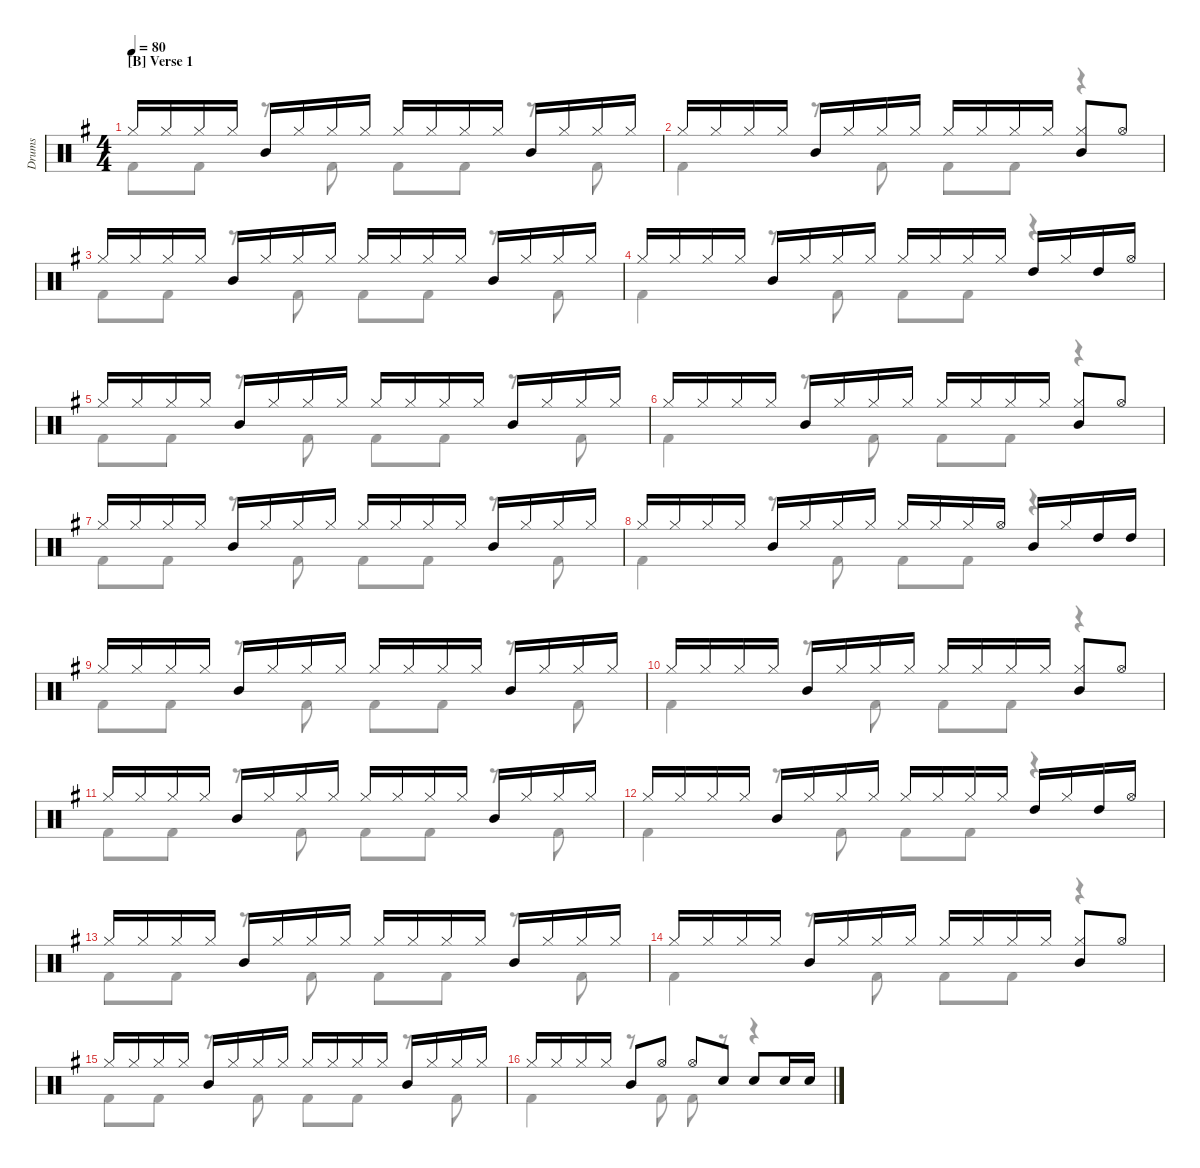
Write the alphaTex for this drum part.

\hideDynamics
\bracketExtendMode nobrackets
\otherSystemsTrackNameOrientation horizontal
\track ("Drums" "Drums") {defaultSystemsLayout 4 multiBarRest instrument percussion}
\staff {score}
\articulation defaults
\voice
\ts (4 4)
\section ("B" "Verse 1")
\tempo 80
\clef neutral
\ks g "Hi-Hat (closed)"{acc forcenatural}.16{dy f beam Up} "Hi-Hat (closed)"{acc forcenatural}.16{beam Up} "Hi-Hat (closed)"{acc forcenatural}.16{beam Up} "Hi-Hat (closed)"{acc forcenatural}.16{beam Up} "Mid Tom (hit)"{acc forcenatural}.16{beam Up} "Hi-Hat (closed)"{acc forcenatural}.16{beam Up} "Hi-Hat (closed)"{acc forcenatural}.16{beam Up} "Hi-Hat (closed)"{acc forcenatural}.16{beam Up} "Hi-Hat (closed)"{acc forcenatural}.16{beam Up} "Hi-Hat (closed)"{acc forcenatural}.16{beam Up} "Hi-Hat (closed)"{acc forcenatural}.16{beam Up} "Hi-Hat (closed)"{acc forcenatural}.16{beam Up} "Mid Tom (hit)"{acc forcenatural}.16{beam Up} "Hi-Hat (closed)"{acc forcenatural}.16{beam Up} "Hi-Hat (closed)"{acc forcenatural}.16{beam Up} "Hi-Hat (closed)"{acc forcenatural}.16{beam Up}
|
"Hi-Hat (closed)"{acc forcenatural}.16{beam Up} "Hi-Hat (closed)"{acc forcenatural}.16{beam Up} "Hi-Hat (closed)"{acc forcenatural}.16{beam Up} "Hi-Hat (closed)"{acc forcenatural}.16{beam Up} "Mid Tom (hit)"{acc forcenatural}.16{beam Up} "Hi-Hat (closed)"{acc forcenatural}.16{beam Up} "Hi-Hat (closed)"{acc forcenatural}.16{beam Up} "Hi-Hat (closed)"{acc forcenatural}.16{beam Up} "Hi-Hat (closed)"{acc forcenatural}.16{beam Up} "Hi-Hat (closed)"{acc forcenatural}.16{beam Up} "Hi-Hat (closed)"{acc forcenatural}.16{beam Up} "Hi-Hat (closed)"{acc forcenatural}.16{beam Up} ("Hi-Hat (closed)"{acc forcenatural} "Mid Tom (hit)"{acc forcenatural}).8{beam Up} "Hi-Hat (open)"{acc forcenatural}.8{beam Up} |
"Hi-Hat (closed)"{acc forcenatural}.16{beam Up} "Hi-Hat (closed)"{acc forcenatural}.16{beam Up} "Hi-Hat (closed)"{acc forcenatural}.16{beam Up} "Hi-Hat (closed)"{acc forcenatural}.16{beam Up} "Mid Tom (hit)"{acc forcenatural}.16{beam Up} "Hi-Hat (closed)"{acc forcenatural}.16{beam Up} "Hi-Hat (closed)"{acc forcenatural}.16{beam Up} "Hi-Hat (closed)"{acc forcenatural}.16{beam Up} "Hi-Hat (closed)"{acc forcenatural}.16{beam Up} "Hi-Hat (closed)"{acc forcenatural}.16{beam Up} "Hi-Hat (closed)"{acc forcenatural}.16{beam Up} "Hi-Hat (closed)"{acc forcenatural}.16{beam Up} "Mid Tom (hit)"{acc forcenatural}.16{beam Up} "Hi-Hat (closed)"{acc forcenatural}.16{beam Up} "Hi-Hat (closed)"{acc forcenatural}.16{beam Up} "Hi-Hat (closed)"{acc forcenatural}.16{beam Up} |
"Hi-Hat (closed)"{acc forcenatural}.16{beam Up} "Hi-Hat (closed)"{acc forcenatural}.16{beam Up} "Hi-Hat (closed)"{acc forcenatural}.16{beam Up} "Hi-Hat (closed)"{acc forcenatural}.16{beam Up} "Mid Tom (hit)"{acc forcenatural}.16{beam Up} "Hi-Hat (closed)"{acc forcenatural}.16{beam Up} "Hi-Hat (closed)"{acc forcenatural}.16{beam Up} "Hi-Hat (closed)"{acc forcenatural}.16{beam Up} "Hi-Hat (closed)"{acc forcenatural}.16{beam Up} "Hi-Hat (closed)"{acc forcenatural}.16{beam Up} "Hi-Hat (closed)"{acc forcenatural}.16{beam Up} "Hi-Hat (closed)"{acc forcenatural}.16{beam Up} "High Tom (hit)"{acc forcenatural}.16{beam Up} "Hi-Hat (closed)"{acc forcenatural}.16{beam Up} "High Tom (hit)"{acc forcenatural}.16{beam Up} "Hi-Hat (open)"{acc forcenatural}.16{beam Up} |
"Hi-Hat (closed)"{acc forcenatural}.16{beam Up} "Hi-Hat (closed)"{acc forcenatural}.16{beam Up} "Hi-Hat (closed)"{acc forcenatural}.16{beam Up} "Hi-Hat (closed)"{acc forcenatural}.16{beam Up} "Mid Tom (hit)"{acc forcenatural}.16{beam Up} "Hi-Hat (closed)"{acc forcenatural}.16{beam Up} "Hi-Hat (closed)"{acc forcenatural}.16{beam Up} "Hi-Hat (closed)"{acc forcenatural}.16{beam Up} "Hi-Hat (closed)"{acc forcenatural}.16{beam Up} "Hi-Hat (closed)"{acc forcenatural}.16{beam Up} "Hi-Hat (closed)"{acc forcenatural}.16{beam Up} "Hi-Hat (closed)"{acc forcenatural}.16{beam Up} "Mid Tom (hit)"{acc forcenatural}.16{beam Up} "Hi-Hat (closed)"{acc forcenatural}.16{beam Up} "Hi-Hat (closed)"{acc forcenatural}.16{beam Up} "Hi-Hat (closed)"{acc forcenatural}.16{beam Up} |
"Hi-Hat (closed)"{acc forcenatural}.16{beam Up} "Hi-Hat (closed)"{acc forcenatural}.16{beam Up} "Hi-Hat (closed)"{acc forcenatural}.16{beam Up} "Hi-Hat (closed)"{acc forcenatural}.16{beam Up} "Mid Tom (hit)"{acc forcenatural}.16{beam Up} "Hi-Hat (closed)"{acc forcenatural}.16{beam Up} "Hi-Hat (closed)"{acc forcenatural}.16{beam Up} "Hi-Hat (closed)"{acc forcenatural}.16{beam Up} "Hi-Hat (closed)"{acc forcenatural}.16{beam Up} "Hi-Hat (closed)"{acc forcenatural}.16{beam Up} "Hi-Hat (closed)"{acc forcenatural}.16{beam Up} "Hi-Hat (closed)"{acc forcenatural}.16{beam Up} ("Hi-Hat (closed)"{acc forcenatural} "Mid Tom (hit)"{acc forcenatural}).8{beam Up} "Hi-Hat (open)"{acc forcenatural}.8{beam Up} |
"Hi-Hat (closed)"{acc forcenatural}.16{beam Up} "Hi-Hat (closed)"{acc forcenatural}.16{beam Up} "Hi-Hat (closed)"{acc forcenatural}.16{beam Up} "Hi-Hat (closed)"{acc forcenatural}.16{beam Up} "Mid Tom (hit)"{acc forcenatural}.16{beam Up} "Hi-Hat (closed)"{acc forcenatural}.16{beam Up} "Hi-Hat (closed)"{acc forcenatural}.16{beam Up} "Hi-Hat (closed)"{acc forcenatural}.16{beam Up} "Hi-Hat (closed)"{acc forcenatural}.16{beam Up} "Hi-Hat (closed)"{acc forcenatural}.16{beam Up} "Hi-Hat (closed)"{acc forcenatural}.16{beam Up} "Hi-Hat (closed)"{acc forcenatural}.16{beam Up} "Mid Tom (hit)"{acc forcenatural}.16{beam Up} "Hi-Hat (closed)"{acc forcenatural}.16{beam Up} "Hi-Hat (closed)"{acc forcenatural}.16{beam Up} "Hi-Hat (closed)"{acc forcenatural}.16{beam Up} |
"Hi-Hat (closed)"{acc forcenatural}.16{beam Up} "Hi-Hat (closed)"{acc forcenatural}.16{beam Up} "Hi-Hat (closed)"{acc forcenatural}.16{beam Up} "Hi-Hat (closed)"{acc forcenatural}.16{beam Up} "Mid Tom (hit)"{acc forcenatural}.16{beam Up} "Hi-Hat (closed)"{acc forcenatural}.16{beam Up} "Hi-Hat (closed)"{acc forcenatural}.16{beam Up} "Hi-Hat (closed)"{acc forcenatural}.16{beam Up} "Hi-Hat (closed)"{acc forcenatural}.16{beam Up} "Hi-Hat (closed)"{acc forcenatural}.16{beam Up} "Hi-Hat (closed)"{acc forcenatural}.16{beam Up} "Hi-Hat (open)"{acc forcenatural}.16{beam Up} "Mid Tom (hit)"{acc forcenatural}.16{beam Up} "Hi-Hat (closed)"{acc forcenatural}.16{beam Up} "High Tom (hit)"{acc forcenatural}.16{beam Up} "High Tom (hit)"{acc forcenatural}.16{beam Up} |
"Hi-Hat (closed)"{acc forcenatural}.16{beam Up} "Hi-Hat (closed)"{acc forcenatural}.16{beam Up} "Hi-Hat (closed)"{acc forcenatural}.16{beam Up} "Hi-Hat (closed)"{acc forcenatural}.16{beam Up} "Mid Tom (hit)"{acc forcenatural}.16{beam Up} "Hi-Hat (closed)"{acc forcenatural}.16{beam Up} "Hi-Hat (closed)"{acc forcenatural}.16{beam Up} "Hi-Hat (closed)"{acc forcenatural}.16{beam Up} "Hi-Hat (closed)"{acc forcenatural}.16{beam Up} "Hi-Hat (closed)"{acc forcenatural}.16{beam Up} "Hi-Hat (closed)"{acc forcenatural}.16{beam Up} "Hi-Hat (closed)"{acc forcenatural}.16{beam Up} "Mid Tom (hit)"{acc forcenatural}.16{beam Up} "Hi-Hat (closed)"{acc forcenatural}.16{beam Up} "Hi-Hat (closed)"{acc forcenatural}.16{beam Up} "Hi-Hat (closed)"{acc forcenatural}.16{beam Up} |
"Hi-Hat (closed)"{acc forcenatural}.16{beam Up} "Hi-Hat (closed)"{acc forcenatural}.16{beam Up} "Hi-Hat (closed)"{acc forcenatural}.16{beam Up} "Hi-Hat (closed)"{acc forcenatural}.16{beam Up} "Mid Tom (hit)"{acc forcenatural}.16{beam Up} "Hi-Hat (closed)"{acc forcenatural}.16{beam Up} "Hi-Hat (closed)"{acc forcenatural}.16{beam Up} "Hi-Hat (closed)"{acc forcenatural}.16{beam Up} "Hi-Hat (closed)"{acc forcenatural}.16{beam Up} "Hi-Hat (closed)"{acc forcenatural}.16{beam Up} "Hi-Hat (closed)"{acc forcenatural}.16{beam Up} "Hi-Hat (closed)"{acc forcenatural}.16{beam Up} ("Hi-Hat (closed)"{acc forcenatural} "Mid Tom (hit)"{acc forcenatural}).8{beam Up} "Hi-Hat (open)"{acc forcenatural}.8{beam Up} |
"Hi-Hat (closed)"{acc forcenatural}.16{beam Up} "Hi-Hat (closed)"{acc forcenatural}.16{beam Up} "Hi-Hat (closed)"{acc forcenatural}.16{beam Up} "Hi-Hat (closed)"{acc forcenatural}.16{beam Up} "Mid Tom (hit)"{acc forcenatural}.16{beam Up} "Hi-Hat (closed)"{acc forcenatural}.16{beam Up} "Hi-Hat (closed)"{acc forcenatural}.16{beam Up} "Hi-Hat (closed)"{acc forcenatural}.16{beam Up} "Hi-Hat (closed)"{acc forcenatural}.16{beam Up} "Hi-Hat (closed)"{acc forcenatural}.16{beam Up} "Hi-Hat (closed)"{acc forcenatural}.16{beam Up} "Hi-Hat (closed)"{acc forcenatural}.16{beam Up} "Mid Tom (hit)"{acc forcenatural}.16{beam Up} "Hi-Hat (closed)"{acc forcenatural}.16{beam Up} "Hi-Hat (closed)"{acc forcenatural}.16{beam Up} "Hi-Hat (closed)"{acc forcenatural}.16{beam Up} |
"Hi-Hat (closed)"{acc forcenatural}.16{beam Up} "Hi-Hat (closed)"{acc forcenatural}.16{beam Up} "Hi-Hat (closed)"{acc forcenatural}.16{beam Up} "Hi-Hat (closed)"{acc forcenatural}.16{beam Up} "Mid Tom (hit)"{acc forcenatural}.16{beam Up} "Hi-Hat (closed)"{acc forcenatural}.16{beam Up} "Hi-Hat (closed)"{acc forcenatural}.16{beam Up} "Hi-Hat (closed)"{acc forcenatural}.16{beam Up} "Hi-Hat (closed)"{acc forcenatural}.16{beam Up} "Hi-Hat (closed)"{acc forcenatural}.16{beam Up} "Hi-Hat (closed)"{acc forcenatural}.16{beam Up} "Hi-Hat (closed)"{acc forcenatural}.16{beam Up} "High Tom (hit)"{acc forcenatural}.16{beam Up} "Hi-Hat (closed)"{acc forcenatural}.16{beam Up} "High Tom (hit)"{acc forcenatural}.16{beam Up} "Hi-Hat (open)"{acc forcenatural}.16{beam Up} |
"Hi-Hat (closed)"{acc forcenatural}.16{beam Up} "Hi-Hat (closed)"{acc forcenatural}.16{beam Up} "Hi-Hat (closed)"{acc forcenatural}.16{beam Up} "Hi-Hat (closed)"{acc forcenatural}.16{beam Up} "Mid Tom (hit)"{acc forcenatural}.16{beam Up} "Hi-Hat (closed)"{acc forcenatural}.16{beam Up} "Hi-Hat (closed)"{acc forcenatural}.16{beam Up} "Hi-Hat (closed)"{acc forcenatural}.16{beam Up} "Hi-Hat (closed)"{acc forcenatural}.16{beam Up} "Hi-Hat (closed)"{acc forcenatural}.16{beam Up} "Hi-Hat (closed)"{acc forcenatural}.16{beam Up} "Hi-Hat (closed)"{acc forcenatural}.16{beam Up} "Mid Tom (hit)"{acc forcenatural}.16{beam Up} "Hi-Hat (closed)"{acc forcenatural}.16{beam Up} "Hi-Hat (closed)"{acc forcenatural}.16{beam Up} "Hi-Hat (closed)"{acc forcenatural}.16{beam Up} |
"Hi-Hat (closed)"{acc forcenatural}.16{beam Up} "Hi-Hat (closed)"{acc forcenatural}.16{beam Up} "Hi-Hat (closed)"{acc forcenatural}.16{beam Up} "Hi-Hat (closed)"{acc forcenatural}.16{beam Up} "Mid Tom (hit)"{acc forcenatural}.16{beam Up} "Hi-Hat (closed)"{acc forcenatural}.16{beam Up} "Hi-Hat (closed)"{acc forcenatural}.16{beam Up} "Hi-Hat (closed)"{acc forcenatural}.16{beam Up} "Hi-Hat (closed)"{acc forcenatural}.16{beam Up} "Hi-Hat (closed)"{acc forcenatural}.16{beam Up} "Hi-Hat (closed)"{acc forcenatural}.16{beam Up} "Hi-Hat (closed)"{acc forcenatural}.16{beam Up} ("Hi-Hat (closed)"{acc forcenatural} "Mid Tom (hit)"{acc forcenatural}).8{beam Up} "Hi-Hat (open)"{acc forcenatural}.8{beam Up} |
"Hi-Hat (closed)"{acc forcenatural}.16{beam Up} "Hi-Hat (closed)"{acc forcenatural}.16{beam Up} "Hi-Hat (closed)"{acc forcenatural}.16{beam Up} "Hi-Hat (closed)"{acc forcenatural}.16{beam Up} "Mid Tom (hit)"{acc forcenatural}.16{beam Up} "Hi-Hat (closed)"{acc forcenatural}.16{beam Up} "Hi-Hat (closed)"{acc forcenatural}.16{beam Up} "Hi-Hat (closed)"{acc forcenatural}.16{beam Up} "Hi-Hat (closed)"{acc forcenatural}.16{beam Up} "Hi-Hat (closed)"{acc forcenatural}.16{beam Up} "Hi-Hat (closed)"{acc forcenatural}.16{beam Up} "Hi-Hat (closed)"{acc forcenatural}.16{beam Up} "Mid Tom (hit)"{acc forcenatural}.16{beam Up} "Hi-Hat (closed)"{acc forcenatural}.16{beam Up} "Hi-Hat (closed)"{acc forcenatural}.16{beam Up} "Hi-Hat (closed)"{acc forcenatural}.16{beam Up} |
"Hi-Hat (closed)"{acc forcenatural}.16{beam Up} "Hi-Hat (closed)"{acc forcenatural}.16{beam Up} "Hi-Hat (closed)"{acc forcenatural}.16{beam Up} "Hi-Hat (closed)"{acc forcenatural}.16{beam Up} "Mid Tom (hit)"{acc forcenatural}.8{beam Up} "Hi-Hat (open)"{acc forcenatural}.8{beam Up} "Hi-Hat (open)"{acc forcenatural}.8{beam Up} "Snare (hit) 2"{acc forcenatural}.8{beam Up} "Snare (hit) 2"{acc forcenatural}.8{beam Up} "Snare (hit) 2"{acc forcenatural}.16{beam Up} "Snare (hit) 2"{acc forcenatural}.16{beam Up}
\voice
\clef neutral
\ottava regular
\simile none
\ks g "Kick (hit) 2"{acc forcenatural}.8{dy mf beam Down} "Kick (hit) 2"{acc forcenatural}.8{beam Down}
r.8{beam Down} "Kick (hit) 2"{acc forcenatural}.8{beam Down} "Kick (hit) 2"{acc forcenatural}.8{beam Down} "Kick (hit) 2"{acc forcenatural}.8{beam Down} r.8{beam Down} "Kick (hit) 2"{acc forcenatural}.8{beam Down} |
"Kick (hit) 2"{acc forcenatural}.4{beam Down} r.8{beam Down} "Kick (hit) 2"{acc forcenatural}.8{beam Down} "Kick (hit) 2"{acc forcenatural}.8{beam Down} "Kick (hit) 2"{acc forcenatural}.8{beam Down} r.4{beam Down} |
"Kick (hit) 2"{acc forcenatural}.8{beam Down} "Kick (hit) 2"{acc forcenatural}.8{beam Down} r.8{beam Down} "Kick (hit) 2"{acc forcenatural}.8{beam Down} "Kick (hit) 2"{acc forcenatural}.8{beam Down} "Kick (hit) 2"{acc forcenatural}.8{beam Down} r.8{beam Down} "Kick (hit) 2"{acc forcenatural}.8{beam Down} |
"Kick (hit) 2"{acc forcenatural}.4{beam Down} r.8{beam Down} "Kick (hit) 2"{acc forcenatural}.8{beam Down} "Kick (hit) 2"{acc forcenatural}.8{beam Down} "Kick (hit) 2"{acc forcenatural}.8{beam Down} r.4{beam Down} |
"Kick (hit) 2"{acc forcenatural}.8{beam Down} "Kick (hit) 2"{acc forcenatural}.8{beam Down} r.8{beam Down} "Kick (hit) 2"{acc forcenatural}.8{beam Down} "Kick (hit) 2"{acc forcenatural}.8{beam Down} "Kick (hit) 2"{acc forcenatural}.8{beam Down} r.8{beam Down} "Kick (hit) 2"{acc forcenatural}.8{beam Down} |
"Kick (hit) 2"{acc forcenatural}.4{beam Down} r.8{beam Down} "Kick (hit) 2"{acc forcenatural}.8{beam Down} "Kick (hit) 2"{acc forcenatural}.8{beam Down} "Kick (hit) 2"{acc forcenatural}.8{beam Down} r.4{beam Down} |
"Kick (hit) 2"{acc forcenatural}.8{beam Down} "Kick (hit) 2"{acc forcenatural}.8{beam Down} r.8{beam Down} "Kick (hit) 2"{acc forcenatural}.8{beam Down} "Kick (hit) 2"{acc forcenatural}.8{beam Down} "Kick (hit) 2"{acc forcenatural}.8{beam Down} r.8{beam Down} "Kick (hit) 2"{acc forcenatural}.8{beam Down} |
"Kick (hit) 2"{acc forcenatural}.4{beam Down} r.8{beam Down} "Kick (hit) 2"{acc forcenatural}.8{beam Down} "Kick (hit) 2"{acc forcenatural}.8{beam Down} "Kick (hit) 2"{acc forcenatural}.8{beam Down} r.4{beam Down} |
"Kick (hit) 2"{acc forcenatural}.8{beam Down} "Kick (hit) 2"{acc forcenatural}.8{beam Down} r.8{beam Down} "Kick (hit) 2"{acc forcenatural}.8{beam Down} "Kick (hit) 2"{acc forcenatural}.8{beam Down} "Kick (hit) 2"{acc forcenatural}.8{beam Down} r.8{beam Down} "Kick (hit) 2"{acc forcenatural}.8{beam Down} |
"Kick (hit) 2"{acc forcenatural}.4{beam Down} r.8{beam Down} "Kick (hit) 2"{acc forcenatural}.8{beam Down} "Kick (hit) 2"{acc forcenatural}.8{beam Down} "Kick (hit) 2"{acc forcenatural}.8{beam Down} r.4{beam Down} |
"Kick (hit) 2"{acc forcenatural}.8{beam Down} "Kick (hit) 2"{acc forcenatural}.8{beam Down} r.8{beam Down} "Kick (hit) 2"{acc forcenatural}.8{beam Down} "Kick (hit) 2"{acc forcenatural}.8{beam Down} "Kick (hit) 2"{acc forcenatural}.8{beam Down} r.8{beam Down} "Kick (hit) 2"{acc forcenatural}.8{beam Down} |
"Kick (hit) 2"{acc forcenatural}.4{beam Down} r.8{beam Down} "Kick (hit) 2"{acc forcenatural}.8{beam Down} "Kick (hit) 2"{acc forcenatural}.8{beam Down} "Kick (hit) 2"{acc forcenatural}.8{beam Down} r.4{beam Down} |
"Kick (hit) 2"{acc forcenatural}.8{beam Down} "Kick (hit) 2"{acc forcenatural}.8{beam Down} r.8{beam Down} "Kick (hit) 2"{acc forcenatural}.8{beam Down} "Kick (hit) 2"{acc forcenatural}.8{beam Down} "Kick (hit) 2"{acc forcenatural}.8{beam Down} r.8{beam Down} "Kick (hit) 2"{acc forcenatural}.8{beam Down} |
"Kick (hit) 2"{acc forcenatural}.4{beam Down} r.8{beam Down} "Kick (hit) 2"{acc forcenatural}.8{beam Down} "Kick (hit) 2"{acc forcenatural}.8{beam Down} "Kick (hit) 2"{acc forcenatural}.8{beam Down} r.4{beam Down} |
"Kick (hit) 2"{acc forcenatural}.8{beam Down} "Kick (hit) 2"{acc forcenatural}.8{beam Down} r.8{beam Down} "Kick (hit) 2"{acc forcenatural}.8{beam Down} "Kick (hit) 2"{acc forcenatural}.8{beam Down} "Kick (hit) 2"{acc forcenatural}.8{beam Down} r.8{beam Down} "Kick (hit) 2"{acc forcenatural}.8{beam Down} |
"Kick (hit) 2"{acc forcenatural}.4{beam Down} r.8{beam Down} "Kick (hit) 2"{acc forcenatural}.8{beam Down} "Kick (hit) 2"{acc forcenatural}.8{beam Down} r.8{beam Down} r.4{beam Down}
